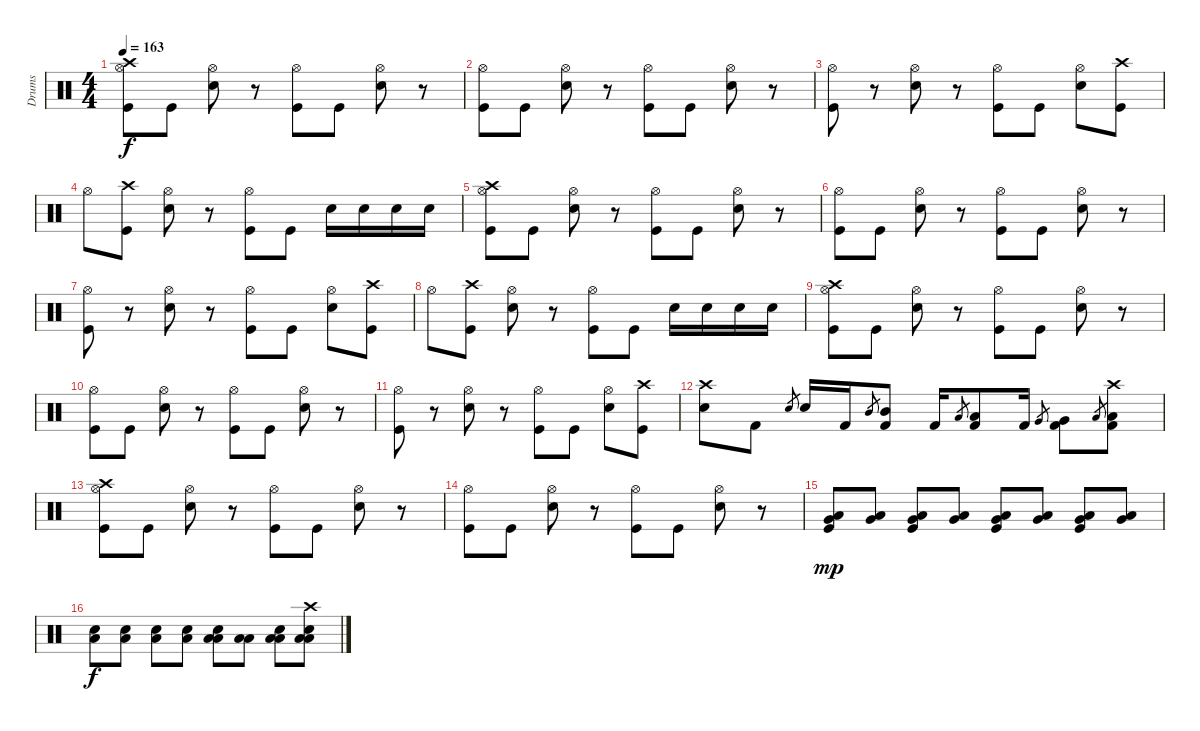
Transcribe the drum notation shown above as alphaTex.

\track ("Drums" "Drums") {instrument percussion}
\staff {score}
\articulation defaults
\ts (4 4)
\tempo 163
\clef neutral
\ks c
("Crash high (hit)" "Kick (hit)" "Hi-Hat (open)").8{dy f} "Kick (hit)".8 ("Electric Snare (hit)" "Hi-Hat (open)").8 r.8 ("Kick (hit)" "Hi-Hat (open)").8 "Kick (hit)".8 ("Electric Snare (hit)" "Hi-Hat (open)").8 r.8 |
("Kick (hit)" "Hi-Hat (open)").8 "Kick (hit)".8 ("Electric Snare (hit)" "Hi-Hat (open)").8 r.8 ("Kick (hit)" "Hi-Hat (open)").8 "Kick (hit)".8 ("Electric Snare (hit)" "Hi-Hat (open)").8 r.8 |
("Kick (hit)" "Hi-Hat (open)").8 r.8 ("Electric Snare (hit)" "Hi-Hat (open)").8 r.8 ("Kick (hit)" "Hi-Hat (open)").8 "Kick (hit)".8 ("Electric Snare (hit)" "Hi-Hat (open)").8 ("Kick (hit)" "Crash high (hit)").8 |
"Hi-Hat (open)".8 ("Kick (hit)" "Crash high (hit)").8 ("Electric Snare (hit)" "Hi-Hat (open)").8 r.8 ("Kick (hit)" "Hi-Hat (open)").8 "Kick (hit)".8 "Snare (hit) 2".16 "Snare (hit) 2".16 "Snare (hit) 2".16 "Snare (hit) 2".16 |
("Crash high (hit)" "Kick (hit)" "Hi-Hat (open)").8 "Kick (hit)".8 ("Electric Snare (hit)" "Hi-Hat (open)").8 r.8 ("Kick (hit)" "Hi-Hat (open)").8 "Kick (hit)".8 ("Electric Snare (hit)" "Hi-Hat (open)").8 r.8 |
("Kick (hit)" "Hi-Hat (open)").8 "Kick (hit)".8 ("Electric Snare (hit)" "Hi-Hat (open)").8 r.8 ("Kick (hit)" "Hi-Hat (open)").8 "Kick (hit)".8 ("Electric Snare (hit)" "Hi-Hat (open)").8 r.8 |
("Kick (hit)" "Hi-Hat (open)").8 r.8 ("Electric Snare (hit)" "Hi-Hat (open)").8 r.8 ("Kick (hit)" "Hi-Hat (open)").8 "Kick (hit)".8 ("Electric Snare (hit)" "Hi-Hat (open)").8 ("Kick (hit)" "Crash high (hit)").8 |
"Hi-Hat (open)".8 ("Kick (hit)" "Crash high (hit)").8 ("Electric Snare (hit)" "Hi-Hat (open)").8 r.8 ("Kick (hit)" "Hi-Hat (open)").8 "Kick (hit)".8 "Snare (hit) 2".16 "Snare (hit) 2".16 "Snare (hit) 2".16 "Snare (hit) 2".16 |
("Crash high (hit)" "Kick (hit)" "Hi-Hat (open)").8 "Kick (hit)".8 ("Electric Snare (hit)" "Hi-Hat (open)").8 r.8 ("Kick (hit)" "Hi-Hat (open)").8 "Kick (hit)".8 ("Electric Snare (hit)" "Hi-Hat (open)").8 r.8 |
("Kick (hit)" "Hi-Hat (open)").8 "Kick (hit)".8 ("Electric Snare (hit)" "Hi-Hat (open)").8 r.8 ("Kick (hit)" "Hi-Hat (open)").8 "Kick (hit)".8 ("Electric Snare (hit)" "Hi-Hat (open)").8 r.8 |
("Kick (hit)" "Hi-Hat (open)").8 r.8 ("Electric Snare (hit)" "Hi-Hat (open)").8 r.8 ("Kick (hit)" "Hi-Hat (open)").8 "Kick (hit)".8 ("Electric Snare (hit)" "Hi-Hat (open)").8 ("Kick (hit)" "Crash high (hit)").8 |
("Crash high (hit)" "Snare (hit) 2").8 "Kick (hit) 2".8 "Snare (hit) 2".8{gr} "Snare (hit) 2".16 "Kick (hit) 2".16 "Mid Tom (hit)".8{gr} ("Kick (hit) 2" "Mid Tom (hit)").8 "Kick (hit) 2".16 "Low Tom (hit)".8{gr} ("Kick (hit) 2" "Low Tom (hit)").8 "Kick (hit) 2".16 "Very Low Tom (hit)".8{gr} ("Kick (hit) 2" "Very Low Tom (hit)").8 "Low Floor Tom (hit)".8{gr} ("Crash high (hit)" "Kick (hit) 2" "Low Floor Tom (hit)").8 |
("Crash high (hit)" "Kick (hit)" "Hi-Hat (open)").8 "Kick (hit)".8 ("Electric Snare (hit)" "Hi-Hat (open)").8 r.8 ("Kick (hit)" "Hi-Hat (open)").8 "Kick (hit)".8 ("Electric Snare (hit)" "Hi-Hat (open)").8 r.8 |
("Kick (hit)" "Hi-Hat (open)").8 "Kick (hit)".8 ("Electric Snare (hit)" "Hi-Hat (open)").8 r.8 ("Kick (hit)" "Hi-Hat (open)").8 "Kick (hit)".8 ("Electric Snare (hit)" "Hi-Hat (open)").8 r.8 |
("Very Low Tom (hit)" "Low Floor Tom (hit)" "Kick (hit)").8{dy mp} ("Very Low Tom (hit)" "Low Floor Tom (hit)").8 ("Very Low Tom (hit)" "Low Floor Tom (hit)" "Kick (hit)").8 ("Very Low Tom (hit)" "Low Floor Tom (hit)").8 ("Very Low Tom (hit)" "Low Floor Tom (hit)" "Kick (hit)").8 ("Very Low Tom (hit)" "Low Floor Tom (hit)").8 ("Very Low Tom (hit)" "Low Floor Tom (hit)" "Kick (hit)").8 ("Very Low Tom (hit)" "Low Floor Tom (hit)").8 |
("Snare (hit) 2" "Low Floor Tom (hit)").8{dy f} ("Snare (hit) 2" "Low Floor Tom (hit)").8 ("Snare (hit) 2" "Low Floor Tom (hit)").8 ("Snare (hit) 2" "Low Floor Tom (hit)").8 ("Snare (hit) 2" "Low Tom (hit)" "Low Floor Tom (hit)").8 ("Low Tom (hit)" "Low Floor Tom (hit)").8 ("Snare (hit) 2" "Low Tom (hit)" "Low Floor Tom (hit)").8 ("Crash high (hit)" "Snare (hit) 2" "Low Tom (hit)" "Low Floor Tom (hit)").8
